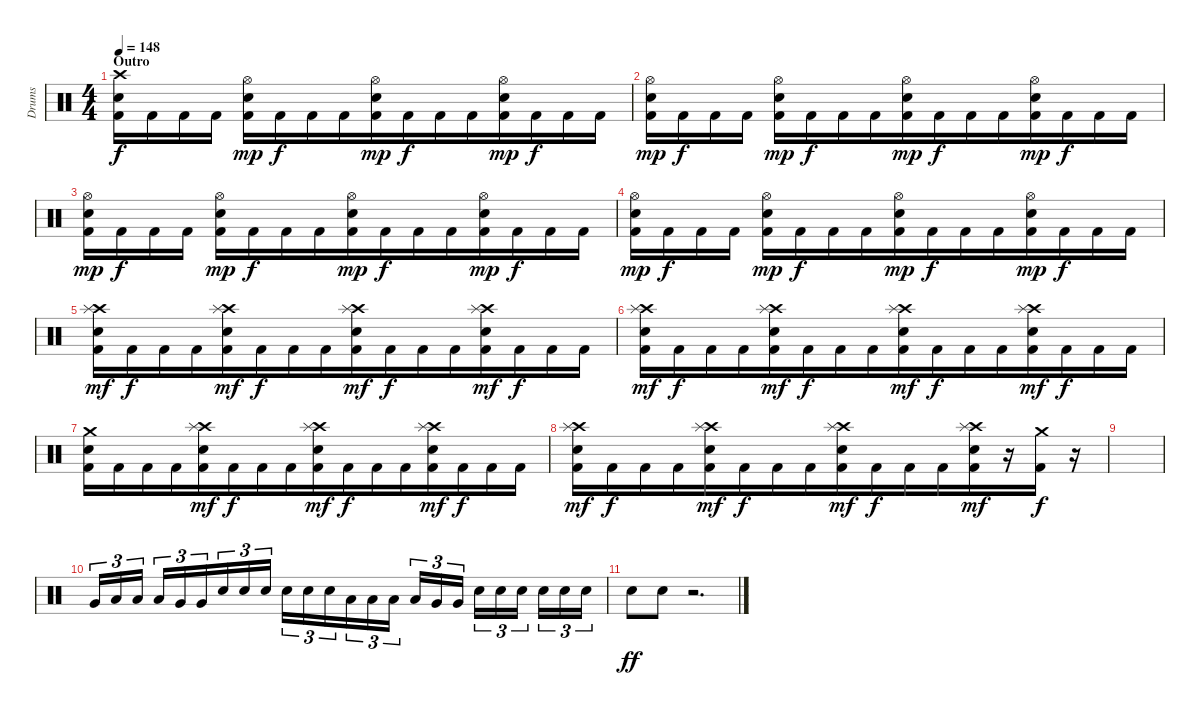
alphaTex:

\track ("Drums" "Drums") {instrument percussion}
\staff {score}
\articulation defaults
\ts (4 4)
\section ("" "Outro")
\tempo 148
\clef neutral
\ks c
("Crash high (hit)" "Snare (hit) 2" "Kick (hit) 2").16{dy f beam merge} "Kick (hit) 2".16 "Kick (hit) 2".16 "Kick (hit) 2".16 ("Hi-Hat (open)" "Snare (hit) 2" "Kick (hit) 2").16{dy mp} "Kick (hit) 2".16{dy f beam merge} "Kick (hit) 2".16{beam merge} "Kick (hit) 2".16{beam merge} ("Hi-Hat (open)" "Snare (hit) 2" "Kick (hit) 2").16{dy mp} "Kick (hit) 2".16{dy f} "Kick (hit) 2".16 "Kick (hit) 2".16{beam merge} ("Hi-Hat (open)" "Snare (hit) 2" "Kick (hit) 2").16{dy mp} "Kick (hit) 2".16{dy f beam merge} "Kick (hit) 2".16 "Kick (hit) 2".16 |
("Hi-Hat (open)" "Snare (hit) 2" "Kick (hit) 2").16{dy mp beam merge} "Kick (hit) 2".16{dy f} "Kick (hit) 2".16 "Kick (hit) 2".16 ("Hi-Hat (open)" "Snare (hit) 2" "Kick (hit) 2").16{dy mp} "Kick (hit) 2".16{dy f beam merge} "Kick (hit) 2".16{beam merge} "Kick (hit) 2".16{beam merge} ("Hi-Hat (open)" "Snare (hit) 2" "Kick (hit) 2").16{dy mp} "Kick (hit) 2".16{dy f} "Kick (hit) 2".16 "Kick (hit) 2".16{beam merge} ("Hi-Hat (open)" "Snare (hit) 2" "Kick (hit) 2").16{dy mp} "Kick (hit) 2".16{dy f beam merge} "Kick (hit) 2".16 "Kick (hit) 2".16 |
("Hi-Hat (open)" "Snare (hit) 2" "Kick (hit) 2").16{dy mp beam merge} "Kick (hit) 2".16{dy f} "Kick (hit) 2".16 "Kick (hit) 2".16 ("Hi-Hat (open)" "Snare (hit) 2" "Kick (hit) 2").16{dy mp} "Kick (hit) 2".16{dy f beam merge} "Kick (hit) 2".16{beam merge} "Kick (hit) 2".16{beam merge} ("Hi-Hat (open)" "Snare (hit) 2" "Kick (hit) 2").16{dy mp} "Kick (hit) 2".16{dy f} "Kick (hit) 2".16 "Kick (hit) 2".16{beam merge} ("Hi-Hat (open)" "Snare (hit) 2" "Kick (hit) 2").16{dy mp} "Kick (hit) 2".16{dy f beam merge} "Kick (hit) 2".16 "Kick (hit) 2".16 |
("Hi-Hat (open)" "Snare (hit) 2" "Kick (hit) 2").16{dy mp beam merge} "Kick (hit) 2".16{dy f} "Kick (hit) 2".16 "Kick (hit) 2".16 ("Hi-Hat (open)" "Snare (hit) 2" "Kick (hit) 2").16{dy mp} "Kick (hit) 2".16{dy f beam merge} "Kick (hit) 2".16{beam merge} "Kick (hit) 2".16{beam merge} ("Hi-Hat (open)" "Snare (hit) 2" "Kick (hit) 2").16{dy mp} "Kick (hit) 2".16{dy f} "Kick (hit) 2".16 "Kick (hit) 2".16{beam merge} ("Hi-Hat (open)" "Snare (hit) 2" "Kick (hit) 2").16{dy mp} "Kick (hit) 2".16{dy f beam merge} "Kick (hit) 2".16 "Kick (hit) 2".16 |
("Crash high (hit)" "Splash (hit)" "Snare (hit) 2" "Kick (hit) 2").16{dy mf beam merge} "Kick (hit) 2".16{dy f} "Kick (hit) 2".16 "Kick (hit) 2".16{beam merge} ("Crash high (hit)" "Splash (hit)" "Snare (hit) 2" "Kick (hit) 2").16{dy mf} "Kick (hit) 2".16{dy f beam merge} "Kick (hit) 2".16{beam merge} "Kick (hit) 2".16{beam merge} ("Crash high (hit)" "Splash (hit)" "Snare (hit) 2" "Kick (hit) 2").16{dy mf} "Kick (hit) 2".16{dy f} "Kick (hit) 2".16 "Kick (hit) 2".16{beam merge} ("Crash high (hit)" "Splash (hit)" "Snare (hit) 2" "Kick (hit) 2").16{dy mf} "Kick (hit) 2".16{dy f beam merge} "Kick (hit) 2".16 "Kick (hit) 2".16 |
("Crash high (hit)" "Splash (hit)" "Snare (hit) 2" "Kick (hit) 2").16{dy mf beam merge} "Kick (hit) 2".16{dy f} "Kick (hit) 2".16 "Kick (hit) 2".16{beam merge} ("Crash high (hit)" "Splash (hit)" "Snare (hit) 2" "Kick (hit) 2").16{dy mf} "Kick (hit) 2".16{dy f beam merge} "Kick (hit) 2".16{beam merge} "Kick (hit) 2".16{beam merge} ("Crash high (hit)" "Splash (hit)" "Snare (hit) 2" "Kick (hit) 2").16{dy mf} "Kick (hit) 2".16{dy f} "Kick (hit) 2".16 "Kick (hit) 2".16{beam merge} ("Crash high (hit)" "Splash (hit)" "Snare (hit) 2" "Kick (hit) 2").16{dy mf} "Kick (hit) 2".16{dy f beam merge} "Kick (hit) 2".16 "Kick (hit) 2".16 |
("Crash medium (hit)" "Snare (hit) 2" "Kick (hit) 2").16{beam merge} "Kick (hit) 2".16 "Kick (hit) 2".16 "Kick (hit) 2".16{beam merge} ("Crash high (hit)" "Splash (hit)" "Snare (hit) 2" "Kick (hit) 2").16{dy mf} "Kick (hit) 2".16{dy f beam merge} "Kick (hit) 2".16{beam merge} "Kick (hit) 2".16{beam merge} ("Crash high (hit)" "Splash (hit)" "Snare (hit) 2" "Kick (hit) 2").16{dy mf} "Kick (hit) 2".16{dy f} "Kick (hit) 2".16 "Kick (hit) 2".16{beam merge} ("Crash high (hit)" "Splash (hit)" "Snare (hit) 2" "Kick (hit) 2").16{dy mf} "Kick (hit) 2".16{dy f beam merge} "Kick (hit) 2".16 "Kick (hit) 2".16 |
("Crash high (hit)" "Splash (hit)" "Snare (hit) 2" "Kick (hit) 2").16{dy mf beam merge} "Kick (hit) 2".16{dy f} "Kick (hit) 2".16 "Kick (hit) 2".16{beam merge} ("Crash high (hit)" "Splash (hit)" "Snare (hit) 2" "Kick (hit) 2").16{dy mf} "Kick (hit) 2".16{dy f beam merge} "Kick (hit) 2".16{beam merge} "Kick (hit) 2".16{beam merge} ("Crash high (hit)" "Splash (hit)" "Snare (hit) 2" "Kick (hit) 2").16{dy mf} "Kick (hit) 2".16{dy f} "Kick (hit) 2".16 "Kick (hit) 2".16{beam merge} ("Crash high (hit)" "Splash (hit)" "Snare (hit) 2" "Kick (hit) 2").16{dy mf} r.16{beam merge} ("Crash medium (hit)" "Kick (hit) 2").16{dy f} r.16 |
|
"Very Low Tom (hit)".16{tu (3 2) beam merge} "Low Tom (hit)".16{tu (3 2)} "Low Tom (hit)".16{tu (3 2) beam splitsecondary} "Low Tom (hit)".16{tu (3 2) beam merge} "Very Low Tom (hit)".16{tu (3 2)} "Very Low Tom (hit)".16{tu (3 2) beam merge} "Snare (hit) 2".16{tu (3 2) beam merge} "Snare (hit) 2".16{tu (3 2)} "Snare (hit) 2".16{tu (3 2) beam splitsecondary} "Snare (hit) 2".16{tu (3 2)} "Snare (hit) 2".16{tu (3 2)} "Snare (hit) 2".16{tu (3 2) beam merge} "Low Tom (hit)".16{tu (3 2)} "Low Tom (hit)".16{tu (3 2)} "Low Tom (hit)".16{tu (3 2) beam splitsecondary} "Low Tom (hit)".16{tu (3 2)} "Very Low Tom (hit)".16{tu (3 2)} "Very Low Tom (hit)".16{tu (3 2)} "Snare (hit) 2".16{tu (3 2)} "Snare (hit) 2".16{tu (3 2) beam merge} "Snare (hit) 2".16{tu (3 2) beam splitsecondary} "Snare (hit) 2".16{tu (3 2) beam merge} "Snare (hit) 2".16{tu (3 2)} "Snare (hit) 2".16{tu (3 2)} |
"Snare (hit) 2".8{dy ff} "Snare (hit) 2".8{beam merge} r.2{d}
